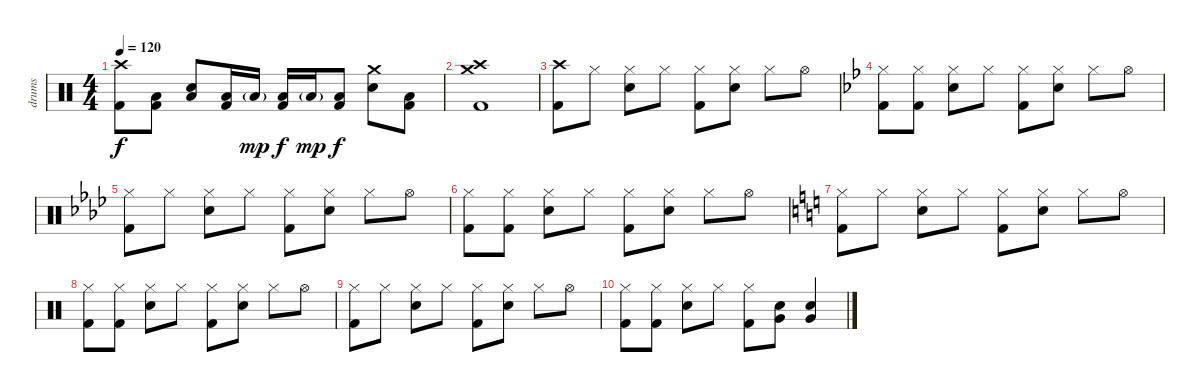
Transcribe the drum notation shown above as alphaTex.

\track ("drums" "drums") {instrument percussion}
\staff {score}
\articulation defaults
\ts (4 4)
\tempo 120
\clef neutral
\ks c
("Crash high (hit)" "Kick (hit) 2").8{dy f} ("Low Floor Tom (hit)" "Kick (hit) 2").8 ("Low Floor Tom (hit)" "Snare (hit) 2").8 ("Low Floor Tom (hit)" "Kick (hit) 2").16 "Low Floor Tom (hit)"{g}.16{dy mp} ("Low Floor Tom (hit)" "Kick (hit) 2").16{dy f} "Low Floor Tom (hit)"{g}.16{dy mp} ("Low Floor Tom (hit)" "Kick (hit) 2").8{dy f} ("Crash medium (hit)" "Snare (hit) 2").8 ("Low Floor Tom (hit)" "Kick (hit) 2").8 |
("Crash high (hit)" "Kick (hit) 2" "Crash medium (hit)").1 |
("Crash high (hit)" "Kick (hit) 2").8 "Hi-Hat (closed)".8 ("Hi-Hat (closed)" "Snare (hit) 2").8 "Hi-Hat (closed)".8 ("Hi-Hat (closed)" "Kick (hit) 2").8 ("Hi-Hat (closed)" "Snare (hit) 2").8 "Hi-Hat (closed)".8 "Hi-Hat (open)".8 |
\ks bb
("Hi-Hat (closed)" "Kick (hit) 2").8 ("Hi-Hat (closed)" "Kick (hit) 2").8 ("Hi-Hat (closed)" "Snare (hit) 2").8 "Hi-Hat (closed)".8 ("Hi-Hat (closed)" "Kick (hit) 2").8 ("Hi-Hat (closed)" "Snare (hit) 2").8 "Hi-Hat (closed)".8 "Hi-Hat (open)".8 |
\ks ab
("Hi-Hat (closed)" "Kick (hit) 2").8 "Hi-Hat (closed)".8 ("Hi-Hat (closed)" "Snare (hit) 2").8 "Hi-Hat (closed)".8 ("Hi-Hat (closed)" "Kick (hit) 2").8 ("Hi-Hat (closed)" "Snare (hit) 2").8 "Hi-Hat (closed)".8 "Hi-Hat (open)".8 |
("Hi-Hat (closed)" "Kick (hit) 2").8 ("Hi-Hat (closed)" "Kick (hit) 2").8 ("Hi-Hat (closed)" "Snare (hit) 2").8 "Hi-Hat (closed)".8 ("Hi-Hat (closed)" "Kick (hit) 2").8 ("Hi-Hat (closed)" "Snare (hit) 2").8 "Hi-Hat (closed)".8 "Hi-Hat (open)".8 |
\ks c
("Hi-Hat (closed)" "Kick (hit) 2").8 "Hi-Hat (closed)".8 ("Hi-Hat (closed)" "Snare (hit) 2").8 "Hi-Hat (closed)".8 ("Hi-Hat (closed)" "Kick (hit) 2").8 ("Hi-Hat (closed)" "Snare (hit) 2").8 "Hi-Hat (closed)".8 "Hi-Hat (open)".8 |
("Hi-Hat (closed)" "Kick (hit) 2").8 ("Hi-Hat (closed)" "Kick (hit) 2").8 ("Hi-Hat (closed)" "Snare (hit) 2").8 "Hi-Hat (closed)".8 ("Hi-Hat (closed)" "Kick (hit) 2").8 ("Hi-Hat (closed)" "Snare (hit) 2").8 "Hi-Hat (closed)".8 "Hi-Hat (open)".8 |
("Hi-Hat (closed)" "Kick (hit) 2").8 "Hi-Hat (closed)".8 ("Hi-Hat (closed)" "Snare (hit) 2").8 "Hi-Hat (closed)".8 ("Hi-Hat (closed)" "Kick (hit) 2").8 ("Hi-Hat (closed)" "Snare (hit) 2").8 "Hi-Hat (closed)".8 "Hi-Hat (open)".8 |
("Hi-Hat (closed)" "Kick (hit) 2").8 ("Hi-Hat (closed)" "Kick (hit) 2").8 ("Hi-Hat (closed)" "Snare (hit) 2").8 "Hi-Hat (closed)".8 ("Hi-Hat (closed)" "Kick (hit) 2").8 ("Very Low Tom (hit)" "Snare (hit) 2").8 ("Very Low Tom (hit)" "Snare (hit) 2").4
